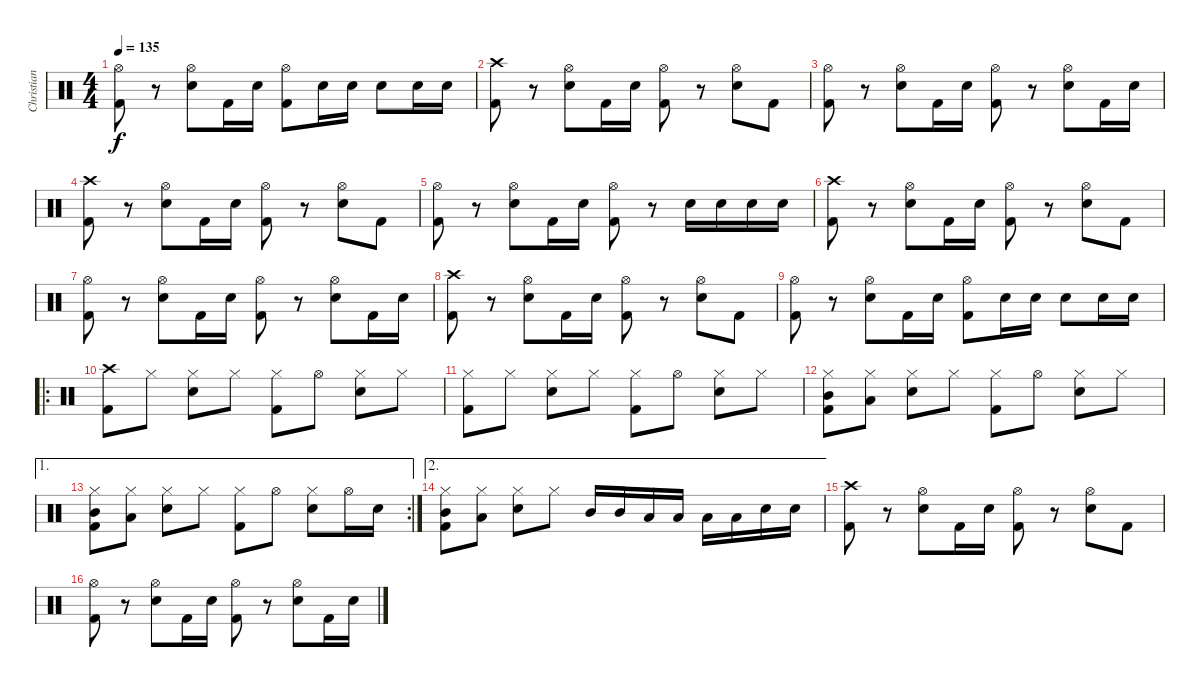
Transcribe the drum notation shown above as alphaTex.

\track ("Christian" "Christian") {instrument percussion}
\staff {score}
\articulation defaults
\ts (4 4)
\tempo 135
\clef neutral
\ks c
("Hi-Hat (open)" "Kick (hit) 2").8{dy f} r.8 ("Hi-Hat (open)" "Snare (hit) 2").8 "Kick (hit) 2".16 "Snare (hit) 2".16 ("Hi-Hat (open)" "Kick (hit) 2").8 "Snare (hit) 2".16 "Snare (hit) 2".16 "Snare (hit) 2".8 "Snare (hit) 2".16 "Snare (hit) 2".16 |
("Crash high (hit)" "Kick (hit) 2").8 r.8 ("Hi-Hat (open)" "Snare (hit) 2").8 "Kick (hit) 2".16 "Snare (hit) 2".16 ("Hi-Hat (open)" "Kick (hit) 2").8 r.8 ("Hi-Hat (open)" "Snare (hit) 2").8 "Kick (hit) 2".8 |
("Hi-Hat (open)" "Kick (hit) 2").8 r.8 ("Hi-Hat (open)" "Snare (hit) 2").8 "Kick (hit) 2".16 "Snare (hit) 2".16 ("Hi-Hat (open)" "Kick (hit) 2").8 r.8 ("Hi-Hat (open)" "Snare (hit) 2").8 "Kick (hit) 2".16 "Snare (hit) 2".16 |
("Crash high (hit)" "Kick (hit) 2").8 r.8 ("Hi-Hat (open)" "Snare (hit) 2").8 "Kick (hit) 2".16 "Snare (hit) 2".16 ("Hi-Hat (open)" "Kick (hit) 2").8 r.8 ("Hi-Hat (open)" "Snare (hit) 2").8 "Kick (hit) 2".8 |
("Hi-Hat (open)" "Kick (hit) 2").8 r.8 ("Hi-Hat (open)" "Snare (hit) 2").8 "Kick (hit) 2".16 "Snare (hit) 2".16 ("Hi-Hat (open)" "Kick (hit) 2").8 r.8 "Snare (hit) 2".16 "Snare (hit) 2".16 "Snare (hit) 2".16 "Snare (hit) 2".16 |
("Crash high (hit)" "Kick (hit) 2").8 r.8 ("Hi-Hat (open)" "Snare (hit) 2").8 "Kick (hit) 2".16 "Snare (hit) 2".16 ("Hi-Hat (open)" "Kick (hit) 2").8 r.8 ("Hi-Hat (open)" "Snare (hit) 2").8 "Kick (hit) 2".8 |
("Hi-Hat (open)" "Kick (hit) 2").8 r.8 ("Hi-Hat (open)" "Snare (hit) 2").8 "Kick (hit) 2".16 "Snare (hit) 2".16 ("Hi-Hat (open)" "Kick (hit) 2").8 r.8 ("Hi-Hat (open)" "Snare (hit) 2").8 "Kick (hit) 2".16 "Snare (hit) 2".16 |
("Crash high (hit)" "Kick (hit) 2").8 r.8 ("Hi-Hat (open)" "Snare (hit) 2").8 "Kick (hit) 2".16 "Snare (hit) 2".16 ("Hi-Hat (open)" "Kick (hit) 2").8 r.8 ("Hi-Hat (open)" "Snare (hit) 2").8 "Kick (hit) 2".8 |
("Hi-Hat (open)" "Kick (hit) 2").8 r.8 ("Hi-Hat (open)" "Snare (hit) 2").8 "Kick (hit) 2".16 "Snare (hit) 2".16 ("Hi-Hat (open)" "Kick (hit) 2").8 "Snare (hit) 2".16 "Snare (hit) 2".16 "Snare (hit) 2".8 "Snare (hit) 2".16 "Snare (hit) 2".16 |
\ro
("Crash high (hit)" "Kick (hit) 2").8 "Hi-Hat (closed)".8 ("Hi-Hat (closed)" "Snare (hit) 2").8 "Hi-Hat (closed)".8 ("Hi-Hat (closed)" "Kick (hit) 2").8 "Hi-Hat (open)".8 ("Hi-Hat (closed)" "Snare (hit) 2").8 "Hi-Hat (closed)".8 |
("Hi-Hat (closed)" "Kick (hit) 2").8 "Hi-Hat (closed)".8 ("Hi-Hat (closed)" "Snare (hit) 2").8 "Hi-Hat (closed)".8 ("Hi-Hat (closed)" "Kick (hit) 2").8 "Hi-Hat (open)".8 ("Hi-Hat (closed)" "Snare (hit) 2").8 "Hi-Hat (closed)".8 |
("Hi-Hat (closed)" "Mid Tom (hit)" "Kick (hit) 2").8 ("Hi-Hat (closed)" "Low Tom (hit)").8 ("Hi-Hat (closed)" "Snare (hit) 2").8 "Hi-Hat (closed)".8 ("Hi-Hat (closed)" "Kick (hit) 2").8 "Hi-Hat (open)".8 ("Hi-Hat (closed)" "Snare (hit) 2").8 "Hi-Hat (closed)".8 |
\ae 1
\rc 2
("Hi-Hat (closed)" "Mid Tom (hit)" "Kick (hit) 2").8 ("Hi-Hat (closed)" "Low Tom (hit)").8 ("Hi-Hat (closed)" "Snare (hit) 2").8 "Hi-Hat (closed)".8 ("Hi-Hat (closed)" "Kick (hit) 2").8 "Hi-Hat (open)".8 ("Hi-Hat (closed)" "Snare (hit) 2").8 "Hi-Hat (open)".16 "Snare (hit) 2".16 |
\ae 2
("Hi-Hat (closed)" "Mid Tom (hit)" "Kick (hit) 2").8 ("Hi-Hat (closed)" "Low Tom (hit)").8 ("Hi-Hat (closed)" "Snare (hit) 2").8 "Hi-Hat (closed)".8 "Mid Tom (hit)".16 "Mid Tom (hit)".16 "Low Tom (hit)".16 "Low Tom (hit)".16 "Low Floor Tom (hit)".16 "Low Floor Tom (hit)".16 "Snare (hit) 2".16 "Snare (hit) 2".16 |
("Crash high (hit)" "Kick (hit) 2").8 r.8 ("Hi-Hat (open)" "Snare (hit) 2").8 "Kick (hit) 2".16 "Snare (hit) 2".16 ("Hi-Hat (open)" "Kick (hit) 2").8 r.8 ("Hi-Hat (open)" "Snare (hit) 2").8 "Kick (hit) 2".8 |
("Hi-Hat (open)" "Kick (hit) 2").8 r.8 ("Hi-Hat (open)" "Snare (hit) 2").8 "Kick (hit) 2".16 "Snare (hit) 2".16 ("Hi-Hat (open)" "Kick (hit) 2").8 r.8 ("Hi-Hat (open)" "Snare (hit) 2").8 "Kick (hit) 2".16 "Snare (hit) 2".16
